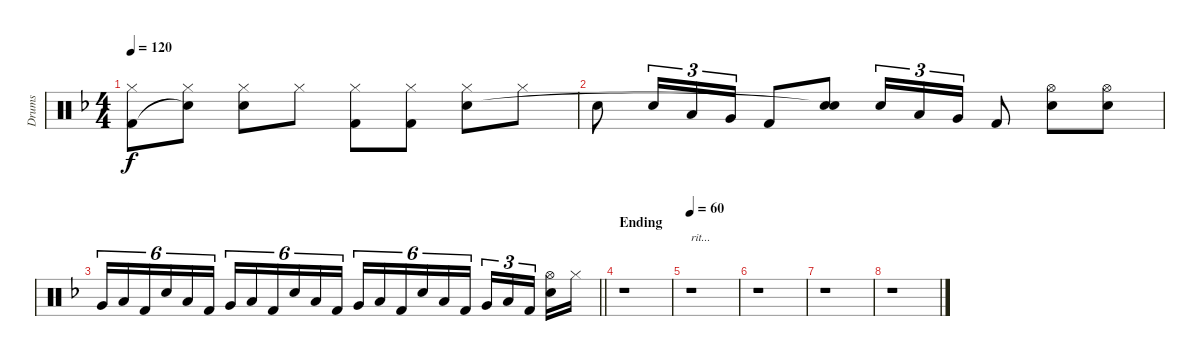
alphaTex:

\track ("Drums" "Drums") {instrument percussion}
\staff {score}
\articulation defaults
\ts (4 4)
\tempo 120
\clef neutral
\ks dminor
("Hi-Hat (closed)" "Kick (hit) 2").8{dy f} ("Hi-Hat (closed)" "Snare (hit)"{t}).8 ("Hi-Hat (closed)" "Electric Snare (hit)").8 "Hi-Hat (closed)".8 ("Hi-Hat (closed)" "Kick (hit) 2").8 ("Hi-Hat (closed)" "Kick (hit) 2").8 ("Hi-Hat (closed)" "Electric Snare (hit)").8 "Hi-Hat (closed)".8 |
"Electric Snare (hit)".8 "Electric Snare (hit)".16{tu (3 2)} "Low Tom (hit)".16{tu (3 2)} "Very Low Tom (hit)".16{tu (3 2)} "Kick (hit) 2".8 ("Electric Snare (hit)" "Snare (hit)"{t}).8 "Electric Snare (hit)".16{tu (3 2)} "Low Tom (hit)".16{tu (3 2)} "Very Low Tom (hit)".16{tu (3 2)} "Kick (hit) 2".8 ("Hi-Hat (open)" "Electric Snare (hit)").8 ("Hi-Hat (open)" "Electric Snare (hit)").8 |
\barLineRight lightlight "Very Low Tom (hit)".16{tu (6 4)} "Low Floor Tom (hit)".16{tu (6 4)} "Kick (hit) 2".16{tu (6 4)} "Electric Snare (hit)".16{tu (6 4)} "Low Floor Tom (hit)".16{tu (6 4)} "Kick (hit) 2".16{tu (6 4)} "Very Low Tom (hit)".16{tu (6 4)} "Low Floor Tom (hit)".16{tu (6 4)} "Kick (hit) 2".16{tu (6 4)} "Electric Snare (hit)".16{tu (6 4)} "Low Floor Tom (hit)".16{tu (6 4)} "Kick (hit) 2".16{tu (6 4)} "Very Low Tom (hit)".16{tu (6 4)} "Low Floor Tom (hit)".16{tu (6 4)} "Kick (hit) 2".16{tu (6 4)} "Electric Snare (hit)".16{tu (6 4)} "Low Floor Tom (hit)".16{tu (6 4)} "Kick (hit) 2".16{tu (6 4)} "Very Low Tom (hit)".16{tu (3 2)} "Low Floor Tom (hit)".16{tu (3 2)} "Kick (hit) 2".16{tu (3 2)}
("Hi-Hat (open)" "Electric Snare (hit)").16 "Hi-Hat (closed)".16 |
\section ("" "Ending")
r.1 |
\tempo 60
r.1{txt "rit..."} |
r.1 |
r.1 |
r.1
